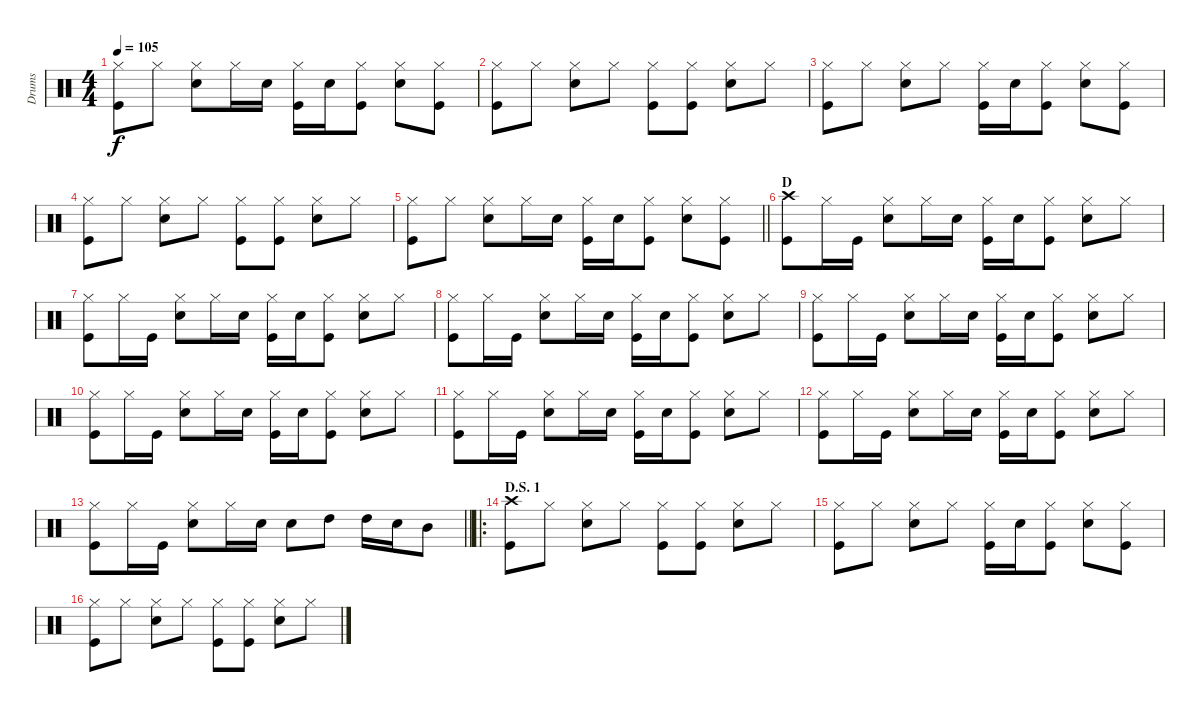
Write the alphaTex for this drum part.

\track ("Drums" "Drums") {instrument percussion}
\staff {score}
\articulation defaults
\ts (4 4)
\tempo 105
\clef neutral
\ks c
("Hi-Hat (closed)" "Kick (hit)").8{dy f} "Hi-Hat (closed)".8 ("Hi-Hat (closed)" "Electric Snare (hit)").8 "Hi-Hat (closed)".16 "Electric Snare (hit)".16 ("Hi-Hat (closed)" "Kick (hit)").16 "Electric Snare (hit)".16 ("Hi-Hat (closed)" "Kick (hit)").8 ("Hi-Hat (closed)" "Electric Snare (hit)").8 ("Hi-Hat (closed)" "Kick (hit)").8 |
("Hi-Hat (closed)" "Kick (hit)").8 "Hi-Hat (closed)".8 ("Hi-Hat (closed)" "Electric Snare (hit)").8 "Hi-Hat (closed)".8 ("Hi-Hat (closed)" "Kick (hit)").8 ("Hi-Hat (closed)" "Kick (hit)").8 ("Hi-Hat (closed)" "Electric Snare (hit)").8 "Hi-Hat (closed)".8 |
("Hi-Hat (closed)" "Kick (hit)").8 "Hi-Hat (closed)".8 ("Hi-Hat (closed)" "Electric Snare (hit)").8 "Hi-Hat (closed)".8 ("Hi-Hat (closed)" "Kick (hit)").16 "Electric Snare (hit)".16 ("Hi-Hat (closed)" "Kick (hit)").8 ("Hi-Hat (closed)" "Electric Snare (hit)").8 ("Hi-Hat (closed)" "Kick (hit)").8 |
("Hi-Hat (closed)" "Kick (hit)").8 "Hi-Hat (closed)".8 ("Hi-Hat (closed)" "Electric Snare (hit)").8 "Hi-Hat (closed)".8 ("Hi-Hat (closed)" "Kick (hit)").8 ("Hi-Hat (closed)" "Kick (hit)").8 ("Hi-Hat (closed)" "Electric Snare (hit)").8 "Hi-Hat (closed)".8 |
\barLineRight lightlight
("Hi-Hat (closed)" "Kick (hit)").8 "Hi-Hat (closed)".8 ("Hi-Hat (closed)" "Electric Snare (hit)").8 "Hi-Hat (closed)".16 "Electric Snare (hit)".16 ("Hi-Hat (closed)" "Kick (hit)").16 "Electric Snare (hit)".16 ("Hi-Hat (closed)" "Kick (hit)").8 ("Hi-Hat (closed)" "Electric Snare (hit)").8 ("Hi-Hat (closed)" "Kick (hit)").8 |
\section ("" "D")
("Crash high (hit)" "Kick (hit)").8 "Hi-Hat (closed)".16 "Kick (hit)".16 ("Hi-Hat (closed)" "Electric Snare (hit)").8 "Hi-Hat (closed)".16 "Electric Snare (hit)".16 ("Hi-Hat (closed)" "Kick (hit)").16 "Electric Snare (hit)".16 ("Hi-Hat (closed)" "Kick (hit)").8 ("Hi-Hat (closed)" "Electric Snare (hit)").8 "Hi-Hat (closed)".8 |
("Hi-Hat (closed)" "Kick (hit)").8 "Hi-Hat (closed)".16 "Kick (hit)".16 ("Hi-Hat (closed)" "Electric Snare (hit)").8 "Hi-Hat (closed)".16 "Electric Snare (hit)".16 ("Hi-Hat (closed)" "Kick (hit)").16 "Electric Snare (hit)".16 ("Hi-Hat (closed)" "Kick (hit)").8 ("Hi-Hat (closed)" "Electric Snare (hit)").8 "Hi-Hat (closed)".8 |
("Hi-Hat (closed)" "Kick (hit)").8 "Hi-Hat (closed)".16 "Kick (hit)".16 ("Hi-Hat (closed)" "Electric Snare (hit)").8 "Hi-Hat (closed)".16 "Electric Snare (hit)".16 ("Hi-Hat (closed)" "Kick (hit)").16 "Electric Snare (hit)".16 ("Hi-Hat (closed)" "Kick (hit)").8 ("Hi-Hat (closed)" "Electric Snare (hit)").8 "Hi-Hat (closed)".8 |
("Hi-Hat (closed)" "Kick (hit)").8 "Hi-Hat (closed)".16 "Kick (hit)".16 ("Hi-Hat (closed)" "Electric Snare (hit)").8 "Hi-Hat (closed)".16 "Electric Snare (hit)".16 ("Hi-Hat (closed)" "Kick (hit)").16 "Electric Snare (hit)".16 ("Hi-Hat (closed)" "Kick (hit)").8 ("Hi-Hat (closed)" "Electric Snare (hit)").8 "Hi-Hat (closed)".8 |
("Hi-Hat (closed)" "Kick (hit)").8 "Hi-Hat (closed)".16 "Kick (hit)".16 ("Hi-Hat (closed)" "Electric Snare (hit)").8 "Hi-Hat (closed)".16 "Electric Snare (hit)".16 ("Hi-Hat (closed)" "Kick (hit)").16 "Electric Snare (hit)".16 ("Hi-Hat (closed)" "Kick (hit)").8 ("Hi-Hat (closed)" "Electric Snare (hit)").8 "Hi-Hat (closed)".8 |
("Hi-Hat (closed)" "Kick (hit)").8 "Hi-Hat (closed)".16 "Kick (hit)".16 ("Hi-Hat (closed)" "Electric Snare (hit)").8 "Hi-Hat (closed)".16 "Electric Snare (hit)".16 ("Hi-Hat (closed)" "Kick (hit)").16 "Electric Snare (hit)".16 ("Hi-Hat (closed)" "Kick (hit)").8 ("Hi-Hat (closed)" "Electric Snare (hit)").8 "Hi-Hat (closed)".8 |
("Hi-Hat (closed)" "Kick (hit)").8 "Hi-Hat (closed)".16 "Kick (hit)".16 ("Hi-Hat (closed)" "Electric Snare (hit)").8 "Hi-Hat (closed)".16 "Electric Snare (hit)".16 ("Hi-Hat (closed)" "Kick (hit)").16 "Electric Snare (hit)".16 ("Hi-Hat (closed)" "Kick (hit)").8 ("Hi-Hat (closed)" "Electric Snare (hit)").8 "Hi-Hat (closed)".8 |
\barLineRight lightlight
("Hi-Hat (closed)" "Kick (hit)").8 "Hi-Hat (closed)".16 "Kick (hit)".16 ("Hi-Hat (closed)" "Electric Snare (hit)").8 "Hi-Hat (closed)".16 "Electric Snare (hit)".16 "Electric Snare (hit)".8 "High Tom (hit)".8 "High Tom (hit)".16 "Electric Snare (hit)".16 "Mid Tom (hit)".8 |
\ro
\section ("" "D.S. 1")
("Crash high (hit)" "Kick (hit)").8 "Hi-Hat (closed)".8 ("Hi-Hat (closed)" "Electric Snare (hit)").8 "Hi-Hat (closed)".8 ("Hi-Hat (closed)" "Kick (hit)").8 ("Hi-Hat (closed)" "Kick (hit)").8 ("Hi-Hat (closed)" "Electric Snare (hit)").8 "Hi-Hat (closed)".8 |
("Hi-Hat (closed)" "Kick (hit)").8 "Hi-Hat (closed)".8 ("Hi-Hat (closed)" "Electric Snare (hit)").8 "Hi-Hat (closed)".8 ("Hi-Hat (closed)" "Kick (hit)").16 "Electric Snare (hit)".16 ("Hi-Hat (closed)" "Kick (hit)").8 ("Hi-Hat (closed)" "Electric Snare (hit)").8 ("Hi-Hat (closed)" "Kick (hit)").8 |
("Hi-Hat (closed)" "Kick (hit)").8 "Hi-Hat (closed)".8 ("Hi-Hat (closed)" "Electric Snare (hit)").8 "Hi-Hat (closed)".8 ("Hi-Hat (closed)" "Kick (hit)").8 ("Hi-Hat (closed)" "Kick (hit)").8 ("Hi-Hat (closed)" "Electric Snare (hit)").8 "Hi-Hat (closed)".8
